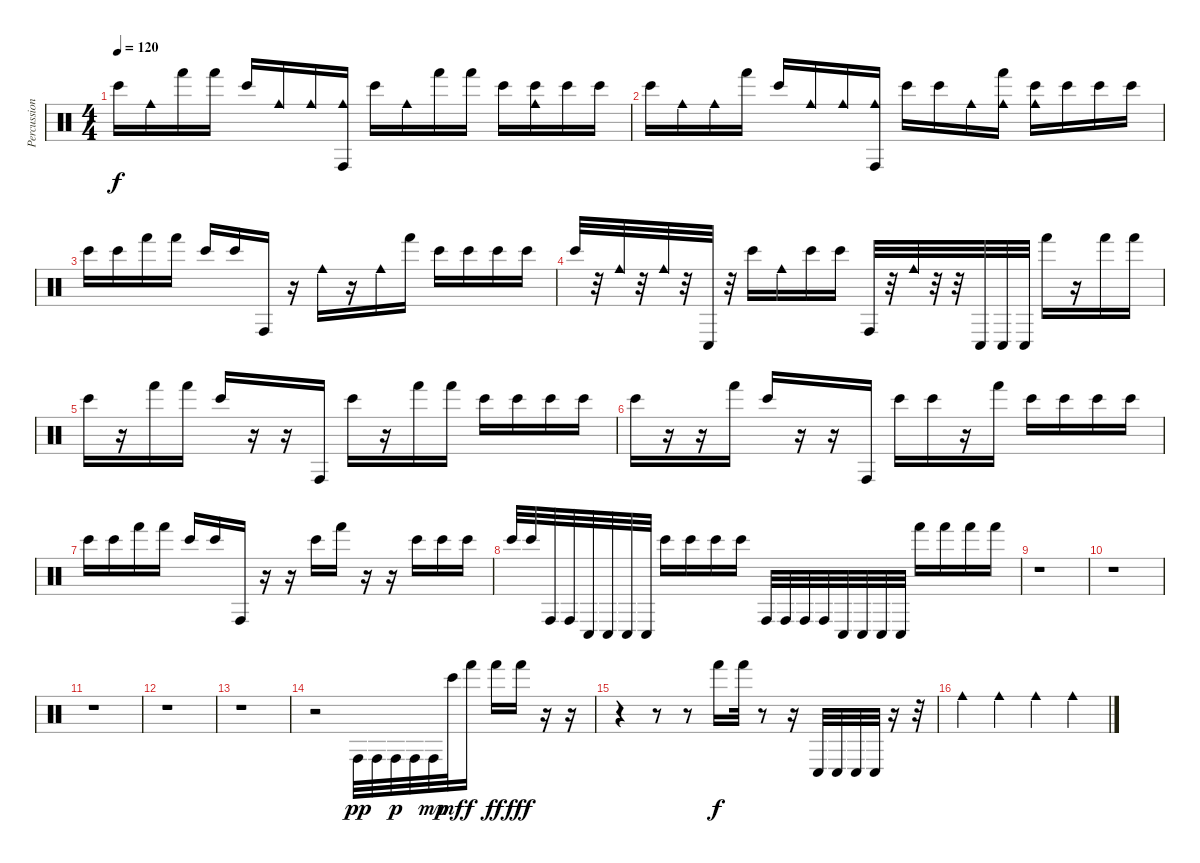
\track ("Percussions" "Percussion") {instrument percussion}
\staff {score}
\articulation defaults
\ts (4 4)
\tempo 120
\clef neutral
\ks c "Bongo High (hit)".16{dy f} "Cowbell medium (hit)".16 "Hand (hit)".16 "Hand (hit)".16 "Bongo High (hit)".16 "Cowbell medium (hit)".16 "Cowbell medium (hit)".16
("Cowbell medium (hit)" "Conga high (hit)").16 "Bongo High (hit)".16 "Cowbell medium (hit)".16 "Hand (hit)".16 "Hand (hit)".16 "Bongo High (hit)".16 ("Cowbell medium (hit)" "Bongo High (hit)").16 "Bongo High (hit)".16 "Bongo High (hit)".16 |
"Bongo High (hit)".16 "Cowbell medium (hit)".16 "Cowbell medium (hit)".16 "Hand (hit)".16 "Bongo High (hit)".16 "Cowbell medium (hit)".16 "Cowbell medium (hit)".16 ("Cowbell medium (hit)" "Conga high (hit)").16 "Bongo High (hit)".16 "Bongo High (hit)".16 "Cowbell medium (hit)".16 ("Cowbell medium (hit)" "Hand (hit)").16 ("Cowbell medium (hit)" "Bongo High (hit)").16 "Bongo High (hit)".16 "Bongo High (hit)".16 "Bongo High (hit)".16 |
"Bongo High (hit)".16 "Bongo High (hit)".16 "Hand (hit)".16 "Hand (hit)".16 "Bongo High (hit)".16 "Bongo High (hit)".16 "Conga high (hit)".16 r.16 "Cowbell medium (hit)".16 r.16 "Cowbell medium (hit)".16 "Hand (hit)".16 "Bongo High (hit)".16 "Bongo High (hit)".16 "Bongo High (hit)".16 "Bongo High (hit)".16 |
"Bongo High (hit)".32 r.32 "Cowbell medium (hit)".32 r.32 "Cowbell medium (hit)".32 r.32 "Conga low (hit)".32 r.32 "Bongo High (hit)".16 "Cowbell medium (hit)".16 "Bongo High (hit)".16 "Bongo High (hit)".16 "Conga high (hit)".32 r.32 "Cowbell medium (hit)".32 r.32 r.32 "Conga low (hit)".32 "Conga low (hit)".32 "Conga low (hit)".32 "Hand (hit)".16 r.16 "Hand (hit)".16 "Hand (hit)".16 |
"Bongo High (hit)".16 r.16 "Hand (hit)".16 "Hand (hit)".16 "Bongo High (hit)".16 r.16 r.16 "Conga high (hit)".16 "Bongo High (hit)".16 r.16 "Hand (hit)".16 "Hand (hit)".16 "Bongo High (hit)".16 "Bongo High (hit)".16 "Bongo High (hit)".16 "Bongo High (hit)".16 |
"Bongo High (hit)".16 r.16 r.16 "Hand (hit)".16 "Bongo High (hit)".16 r.16 r.16 "Conga high (hit)".16 "Bongo High (hit)".16 "Bongo High (hit)".16 r.16 "Hand (hit)".16 "Bongo High (hit)".16 "Bongo High (hit)".16 "Bongo High (hit)".16 "Bongo High (hit)".16 |
"Bongo High (hit)".16 "Bongo High (hit)".16 "Hand (hit)".16 "Hand (hit)".16 "Bongo High (hit)".16 "Bongo High (hit)".16 "Conga high (hit)".16 r.16 r.16 "Bongo High (hit)".16 "Hand (hit)".16 r.16 r.16 "Bongo High (hit)".16 "Bongo High (hit)".16 "Bongo High (hit)".16 |
"Bongo High (hit)".32 "Bongo High (hit)".32 "Conga high (hit)".32 "Conga high (hit)".32 "Conga low (hit)".32 "Conga low (hit)".32 "Conga low (hit)".32 "Conga low (hit)".32 "Bongo High (hit)".16 "Bongo High (hit)".16 "Bongo High (hit)".16 "Bongo High (hit)".16 "Conga high (hit)".32 "Conga high (hit)".32 "Conga high (hit)".32 "Conga high (hit)".32 "Conga low (hit)".32 "Conga low (hit)".32 "Conga low (hit)".32 "Conga low (hit)".32 "Hand (hit)".16 "Hand (hit)".16 "Hand (hit)".16 "Hand (hit)".16 |
r.1 |
r.1 |
r.1 |
r.1 |
r.1 |
r.2 "Conga high (hit)".32{dy pp} "Conga high (hit)".32 "Conga high (hit)".32{dy p} "Conga high (hit)".32 "Conga high (hit)".32{dy mp} "Bongo High (hit)".32{dy mf} "Hand (hit)".16{dy f} "Hand (hit)".16{dy ff} "Hand (hit)".16{dy fff} r.16 r.16 |
r.4 r.8 r.8 "Hand (hit)".16{dy f} "Hand (hit)".32 r.8 r.16 "Conga low (hit)".32 "Conga low (hit)".32 "Conga low (hit)".32 "Conga low (hit)".32 r.16 r.32 |
"Cowbell medium (hit)".4 "Cowbell medium (hit)".4 "Cowbell medium (hit)".4 "Cowbell medium (hit)".4
